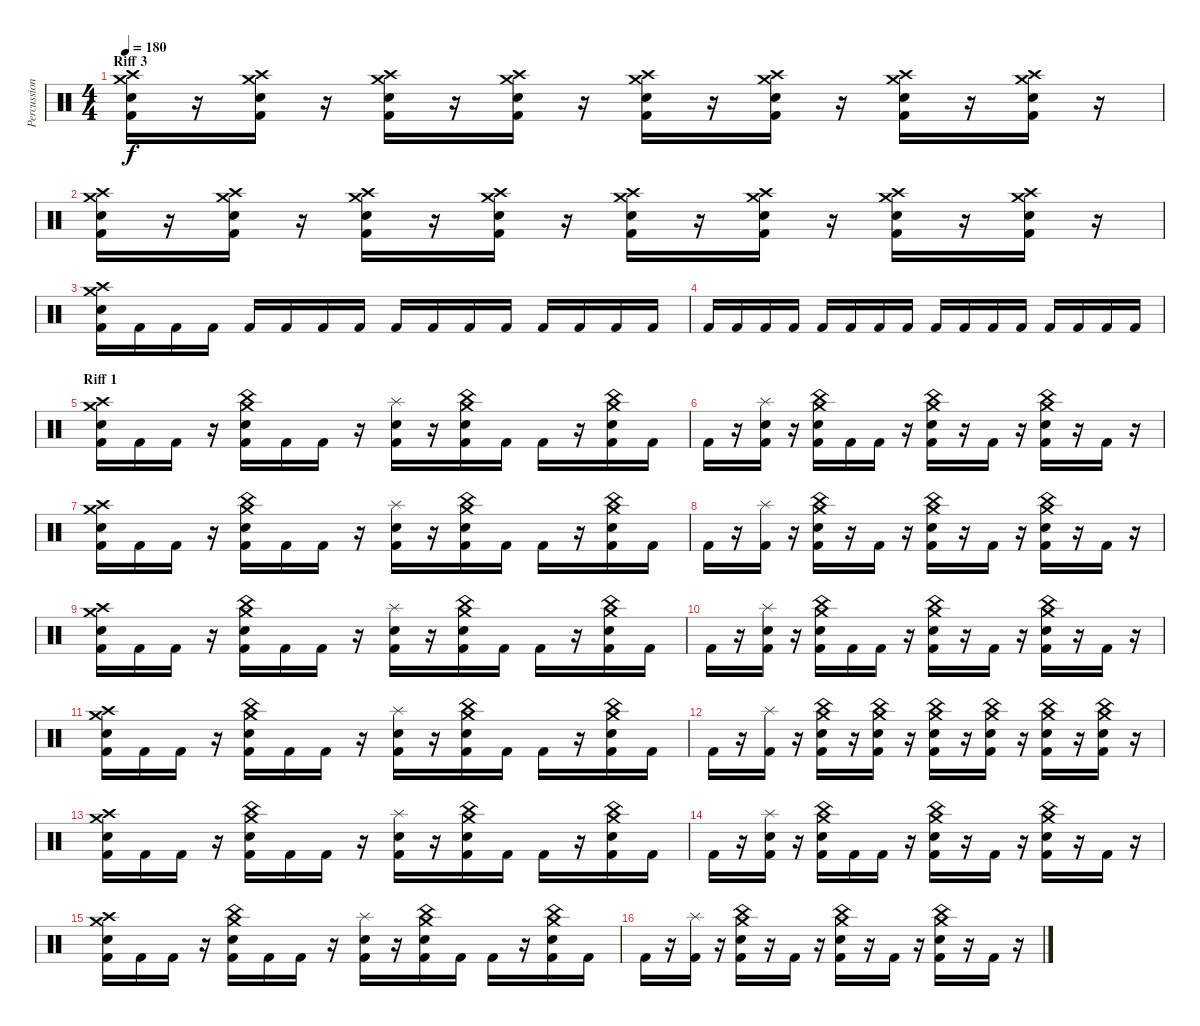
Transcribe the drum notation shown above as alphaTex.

\track ("Percussion" "Percussion") {instrument percussion}
\staff {score}
\articulation defaults
\ts (4 4)
\section ("" "Riff 3")
\tempo 180
\clef neutral
\ks c
("Crash medium (hit)" "Crash high (hit)" "Electric Snare (hit)" "Kick (hit) 2").16{dy f} r.16 ("Crash medium (hit)" "Crash high (hit)" "Electric Snare (hit)" "Kick (hit) 2").16 r.16 ("Crash medium (hit)" "Crash high (hit)" "Electric Snare (hit)" "Kick (hit) 2").16 r.16 ("Crash medium (hit)" "Crash high (hit)" "Electric Snare (hit)" "Kick (hit) 2").16 r.16 ("Crash medium (hit)" "Crash high (hit)" "Electric Snare (hit)" "Kick (hit) 2").16 r.16 ("Crash medium (hit)" "Crash high (hit)" "Electric Snare (hit)" "Kick (hit) 2").16 r.16 ("Crash medium (hit)" "Crash high (hit)" "Electric Snare (hit)" "Kick (hit) 2").16 r.16 ("Crash medium (hit)" "Crash high (hit)" "Electric Snare (hit)" "Kick (hit) 2").16 r.16 |
("Crash medium (hit)" "Crash high (hit)" "Electric Snare (hit)" "Kick (hit) 2").16 r.16 ("Crash medium (hit)" "Crash high (hit)" "Electric Snare (hit)" "Kick (hit) 2").16 r.16 ("Crash medium (hit)" "Crash high (hit)" "Electric Snare (hit)" "Kick (hit) 2").16 r.16 ("Crash medium (hit)" "Crash high (hit)" "Electric Snare (hit)" "Kick (hit) 2").16 r.16 ("Crash medium (hit)" "Crash high (hit)" "Electric Snare (hit)" "Kick (hit) 2").16 r.16 ("Crash medium (hit)" "Crash high (hit)" "Electric Snare (hit)" "Kick (hit) 2").16 r.16 ("Crash medium (hit)" "Crash high (hit)" "Electric Snare (hit)" "Kick (hit) 2").16 r.16 ("Crash medium (hit)" "Crash high (hit)" "Electric Snare (hit)" "Kick (hit) 2").16 r.16 |
("Crash medium (hit)" "Crash high (hit)" "Electric Snare (hit)" "Kick (hit) 2").16 "Kick (hit) 2".16 "Kick (hit) 2".16 "Kick (hit) 2".16 "Kick (hit) 2".16 "Kick (hit) 2".16 "Kick (hit) 2".16 "Kick (hit) 2".16 "Kick (hit) 2".16 "Kick (hit) 2".16 "Kick (hit) 2".16 "Kick (hit) 2".16 "Kick (hit) 2".16 "Kick (hit) 2".16 "Kick (hit) 2".16 "Kick (hit) 2".16 |
"Kick (hit) 2".16 "Kick (hit) 2".16 "Kick (hit) 2".16 "Kick (hit) 2".16 "Kick (hit) 2".16 "Kick (hit) 2".16 "Kick (hit) 2".16 "Kick (hit) 2".16 "Kick (hit) 2".16 "Kick (hit) 2".16 "Kick (hit) 2".16 "Kick (hit) 2".16 "Kick (hit) 2".16 "Kick (hit) 2".16 "Kick (hit) 2".16 "Kick (hit) 2".16 |
\section ("" "Riff 1")
("Crash medium (hit)" "Crash high (hit)" "Electric Snare (hit)" "Kick (hit) 2").16 "Kick (hit) 2".16 "Kick (hit) 2".16 r.16 ("China (hit)" "Crash medium (hit)" "Electric Snare (hit)" "Kick (hit) 2").16 "Kick (hit) 2".16 "Kick (hit) 2".16 r.16 ("Splash (hit)" "Electric Snare (hit)" "Kick (hit) 2").16 r.16 ("China (hit)" "Crash medium (hit)" "Electric Snare (hit)" "Kick (hit) 2").16 "Kick (hit) 2".16 "Kick (hit) 2".16 r.16 ("China (hit)" "Crash medium (hit)" "Electric Snare (hit)" "Kick (hit) 2").16 "Kick (hit) 2".16 |
"Kick (hit) 2".16 r.16 ("Splash (hit)" "Electric Snare (hit)" "Kick (hit) 2").16 r.16 ("China (hit)" "Crash medium (hit)" "Electric Snare (hit)" "Kick (hit) 2").16 "Kick (hit) 2".16 "Kick (hit) 2".16 r.16 ("China (hit)" "Crash medium (hit)" "Electric Snare (hit)" "Kick (hit) 2").16 r.16 "Kick (hit) 2".16 r.16 ("China (hit)" "Crash medium (hit)" "Electric Snare (hit)" "Kick (hit) 2").16 r.16 "Kick (hit) 2".16 r.16 |
("Crash medium (hit)" "Crash high (hit)" "Electric Snare (hit)" "Kick (hit) 2").16 "Kick (hit) 2".16 "Kick (hit) 2".16 r.16 ("China (hit)" "Crash medium (hit)" "Electric Snare (hit)" "Kick (hit) 2").16 "Kick (hit) 2".16 "Kick (hit) 2".16 r.16 ("Splash (hit)" "Electric Snare (hit)" "Kick (hit) 2").16 r.16 ("China (hit)" "Crash medium (hit)" "Electric Snare (hit)" "Kick (hit) 2").16 "Kick (hit) 2".16 "Kick (hit) 2".16 r.16 ("China (hit)" "Crash medium (hit)" "Electric Snare (hit)" "Kick (hit) 2").16 "Kick (hit) 2".16 |
"Kick (hit) 2".16 r.16 ("Splash (hit)" "Kick (hit) 2").16 r.16 ("China (hit)" "Crash medium (hit)" "Electric Snare (hit)" "Kick (hit) 2").16 r.16 "Kick (hit) 2".16 r.16 ("China (hit)" "Crash medium (hit)" "Electric Snare (hit)" "Kick (hit) 2").16 r.16 "Kick (hit) 2".16 r.16 ("China (hit)" "Crash medium (hit)" "Electric Snare (hit)" "Kick (hit) 2").16 r.16 "Kick (hit) 2".16 r.16 |
("Crash medium (hit)" "Crash high (hit)" "Electric Snare (hit)" "Kick (hit) 2").16 "Kick (hit) 2".16 "Kick (hit) 2".16 r.16 ("China (hit)" "Crash medium (hit)" "Electric Snare (hit)" "Kick (hit) 2").16 "Kick (hit) 2".16 "Kick (hit) 2".16 r.16 ("Splash (hit)" "Electric Snare (hit)" "Kick (hit) 2").16 r.16 ("China (hit)" "Crash medium (hit)" "Electric Snare (hit)" "Kick (hit) 2").16 "Kick (hit) 2".16 "Kick (hit) 2".16 r.16 ("China (hit)" "Crash medium (hit)" "Electric Snare (hit)" "Kick (hit) 2").16 "Kick (hit) 2".16 |
"Kick (hit) 2".16 r.16 ("Splash (hit)" "Electric Snare (hit)" "Kick (hit) 2").16 r.16 ("China (hit)" "Crash medium (hit)" "Electric Snare (hit)" "Kick (hit) 2").16 "Kick (hit) 2".16 "Kick (hit) 2".16 r.16 ("China (hit)" "Crash medium (hit)" "Electric Snare (hit)" "Kick (hit) 2").16 r.16 "Kick (hit) 2".16 r.16 ("China (hit)" "Crash medium (hit)" "Electric Snare (hit)" "Kick (hit) 2").16 r.16 "Kick (hit) 2".16 r.16 |
("Crash medium (hit)" "Crash high (hit)" "Electric Snare (hit)" "Kick (hit) 2").16 "Kick (hit) 2".16 "Kick (hit) 2".16 r.16 ("China (hit)" "Crash medium (hit)" "Electric Snare (hit)" "Kick (hit) 2").16 "Kick (hit) 2".16 "Kick (hit) 2".16 r.16 ("Splash (hit)" "Electric Snare (hit)" "Kick (hit) 2").16 r.16 ("China (hit)" "Crash medium (hit)" "Electric Snare (hit)" "Kick (hit) 2").16 "Kick (hit) 2".16 "Kick (hit) 2".16 r.16 ("China (hit)" "Crash medium (hit)" "Electric Snare (hit)" "Kick (hit) 2").16 "Kick (hit) 2".16 |
"Kick (hit) 2".16 r.16 ("Splash (hit)" "Kick (hit) 2").16 r.16 ("China (hit)" "Crash medium (hit)" "Electric Snare (hit)" "Kick (hit) 2").16 r.16 ("China (hit)" "Crash medium (hit)" "Electric Snare (hit)" "Kick (hit) 2").16 r.16 ("China (hit)" "Crash medium (hit)" "Electric Snare (hit)" "Kick (hit) 2").16 r.16 ("China (hit)" "Crash medium (hit)" "Electric Snare (hit)" "Kick (hit) 2").16 r.16 ("China (hit)" "Crash medium (hit)" "Electric Snare (hit)" "Kick (hit) 2").16 r.16 ("China (hit)" "Crash medium (hit)" "Electric Snare (hit)" "Kick (hit) 2").16 r.16 |
("Crash medium (hit)" "Crash high (hit)" "Electric Snare (hit)" "Kick (hit) 2").16 "Kick (hit) 2".16 "Kick (hit) 2".16 r.16 ("China (hit)" "Crash medium (hit)" "Electric Snare (hit)" "Kick (hit) 2").16 "Kick (hit) 2".16 "Kick (hit) 2".16 r.16 ("Splash (hit)" "Electric Snare (hit)" "Kick (hit) 2").16 r.16 ("China (hit)" "Crash medium (hit)" "Electric Snare (hit)" "Kick (hit) 2").16 "Kick (hit) 2".16 "Kick (hit) 2".16 r.16 ("China (hit)" "Crash medium (hit)" "Electric Snare (hit)" "Kick (hit) 2").16 "Kick (hit) 2".16 |
"Kick (hit) 2".16 r.16 ("Splash (hit)" "Electric Snare (hit)" "Kick (hit) 2").16 r.16 ("China (hit)" "Crash medium (hit)" "Electric Snare (hit)" "Kick (hit) 2").16 "Kick (hit) 2".16 "Kick (hit) 2".16 r.16 ("China (hit)" "Crash medium (hit)" "Electric Snare (hit)" "Kick (hit) 2").16 r.16 "Kick (hit) 2".16 r.16 ("China (hit)" "Crash medium (hit)" "Electric Snare (hit)" "Kick (hit) 2").16 r.16 "Kick (hit) 2".16 r.16 |
("Crash medium (hit)" "Crash high (hit)" "Electric Snare (hit)" "Kick (hit) 2").16 "Kick (hit) 2".16 "Kick (hit) 2".16 r.16 ("China (hit)" "Crash medium (hit)" "Electric Snare (hit)" "Kick (hit) 2").16 "Kick (hit) 2".16 "Kick (hit) 2".16 r.16 ("Splash (hit)" "Electric Snare (hit)" "Kick (hit) 2").16 r.16 ("China (hit)" "Crash medium (hit)" "Electric Snare (hit)" "Kick (hit) 2").16 "Kick (hit) 2".16 "Kick (hit) 2".16 r.16 ("China (hit)" "Crash medium (hit)" "Electric Snare (hit)" "Kick (hit) 2").16 "Kick (hit) 2".16 |
"Kick (hit) 2".16 r.16 ("Splash (hit)" "Kick (hit) 2").16 r.16 ("China (hit)" "Crash medium (hit)" "Electric Snare (hit)" "Kick (hit) 2").16 r.16 "Kick (hit) 2".16 r.16 ("China (hit)" "Crash medium (hit)" "Electric Snare (hit)" "Kick (hit) 2").16 r.16 "Kick (hit) 2".16 r.16 ("China (hit)" "Crash medium (hit)" "Electric Snare (hit)" "Kick (hit) 2").16 r.16 "Kick (hit) 2".16 r.16
